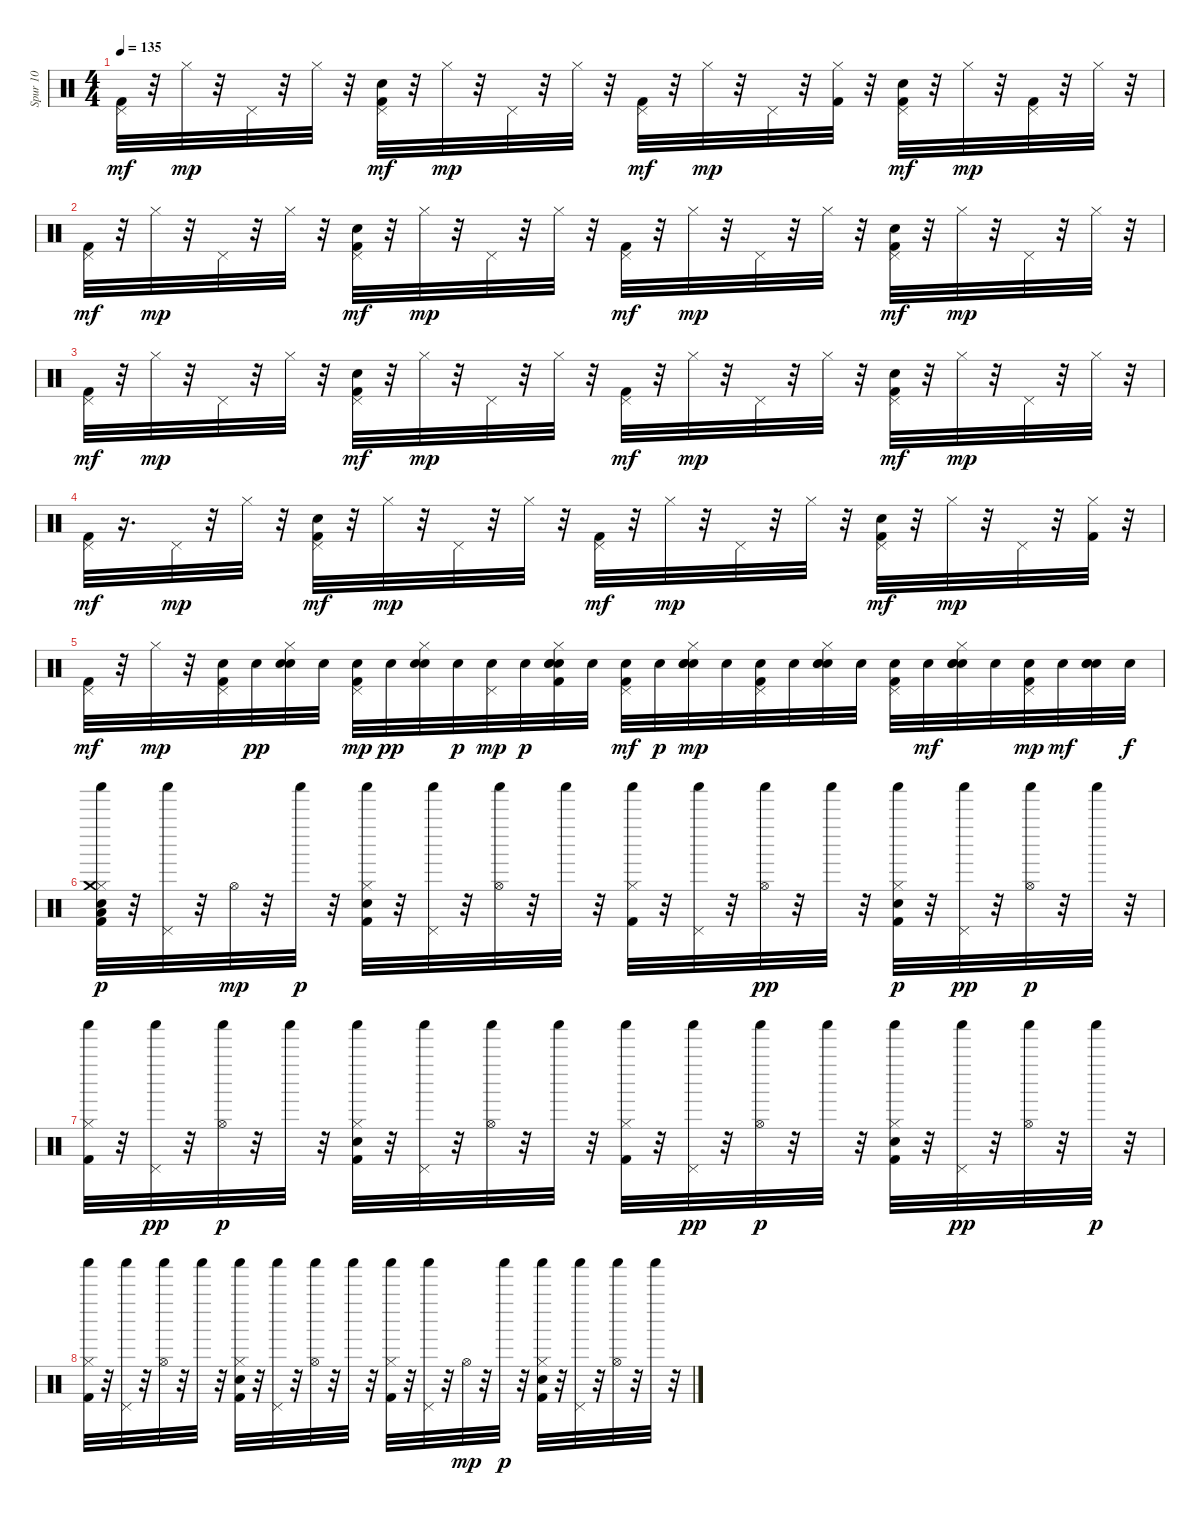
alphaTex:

\track ("Spur 10" "Spur 10") {instrument percussion}
\staff {score}
\articulation defaults
\ts (4 4)
\tempo 135
\clef neutral
\ks c
("Kick (hit) 2" "Pedal Hi-Hat (hit)").32{dy mf} r.32 "Hi-Hat (closed)".32{dy mp} r.32 "Pedal Hi-Hat (hit)".32 r.32 "Hi-Hat (closed)".32 r.32 ("Kick (hit) 2" "Snare (hit) 2" "Pedal Hi-Hat (hit)").32{dy mf} r.32 "Hi-Hat (closed)".32{dy mp} r.32 "Pedal Hi-Hat (hit)".32 r.32 "Hi-Hat (closed)".32 r.32 ("Kick (hit) 2" "Pedal Hi-Hat (hit)").32{dy mf} r.32 "Hi-Hat (closed)".32{dy mp} r.32 "Pedal Hi-Hat (hit)".32 r.32 ("Kick (hit) 2" "Hi-Hat (closed)").32 r.32 ("Kick (hit) 2" "Snare (hit) 2" "Pedal Hi-Hat (hit)").32{dy mf} r.32 "Hi-Hat (closed)".32{dy mp} r.32 ("Kick (hit) 2" "Pedal Hi-Hat (hit)").32 r.32 "Hi-Hat (closed)".32 r.32 |
("Kick (hit) 2" "Pedal Hi-Hat (hit)").32{dy mf} r.32 "Hi-Hat (closed)".32{dy mp} r.32 "Pedal Hi-Hat (hit)".32 r.32 "Hi-Hat (closed)".32 r.32 ("Kick (hit) 2" "Snare (hit) 2" "Pedal Hi-Hat (hit)").32{dy mf} r.32 "Hi-Hat (closed)".32{dy mp} r.32 "Pedal Hi-Hat (hit)".32 r.32 "Hi-Hat (closed)".32 r.32 ("Kick (hit) 2" "Pedal Hi-Hat (hit)").32{dy mf} r.32 "Hi-Hat (closed)".32{dy mp} r.32 "Pedal Hi-Hat (hit)".32 r.32 "Hi-Hat (closed)".32 r.32 ("Kick (hit) 2" "Snare (hit) 2" "Pedal Hi-Hat (hit)").32{dy mf} r.32 "Hi-Hat (closed)".32{dy mp} r.32 "Pedal Hi-Hat (hit)".32 r.32 "Hi-Hat (closed)".32 r.32 |
("Kick (hit) 2" "Pedal Hi-Hat (hit)").32{dy mf} r.32 "Hi-Hat (closed)".32{dy mp} r.32 "Pedal Hi-Hat (hit)".32 r.32 "Hi-Hat (closed)".32 r.32 ("Kick (hit) 2" "Snare (hit) 2" "Pedal Hi-Hat (hit)").32{dy mf} r.32 "Hi-Hat (closed)".32{dy mp} r.32 "Pedal Hi-Hat (hit)".32 r.32 "Hi-Hat (closed)".32 r.32 ("Kick (hit) 2" "Pedal Hi-Hat (hit)").32{dy mf} r.32 "Hi-Hat (closed)".32{dy mp} r.32 "Pedal Hi-Hat (hit)".32 r.32 "Hi-Hat (closed)".32 r.32 ("Kick (hit) 2" "Snare (hit) 2" "Pedal Hi-Hat (hit)").32{dy mf} r.32 "Hi-Hat (closed)".32{dy mp} r.32 "Pedal Hi-Hat (hit)".32 r.32 "Hi-Hat (closed)".32 r.32 |
("Kick (hit) 2" "Pedal Hi-Hat (hit)").32{dy mf} r.16{d} "Pedal Hi-Hat (hit)".32{dy mp} r.32 "Hi-Hat (closed)".32 r.32 ("Kick (hit) 2" "Snare (hit) 2" "Pedal Hi-Hat (hit)").32{dy mf} r.32 "Hi-Hat (closed)".32{dy mp} r.32 "Pedal Hi-Hat (hit)".32 r.32 "Hi-Hat (closed)".32 r.32 ("Kick (hit) 2" "Pedal Hi-Hat (hit)").32{dy mf} r.32 "Hi-Hat (closed)".32{dy mp} r.32 "Pedal Hi-Hat (hit)".32 r.32 "Hi-Hat (closed)".32 r.32 ("Kick (hit) 2" "Snare (hit) 2" "Pedal Hi-Hat (hit)").32{dy mf} r.32 "Hi-Hat (closed)".32{dy mp} r.32 "Pedal Hi-Hat (hit)".32 r.32 ("Kick (hit) 2" "Hi-Hat (closed)").32 r.32 |
("Kick (hit) 2" "Pedal Hi-Hat (hit)").32{dy mf} r.32 "Hi-Hat (closed)".32{dy mp} r.32 ("Kick (hit) 2" "Snare (hit) 2" "Pedal Hi-Hat (hit)").32 "Snare (hit) 2".32{dy pp} ("Snare (hit) 2" "Hi-Hat (closed)" "Snare (hit) 2").32 "Snare (hit) 2".32 ("Kick (hit) 2" "Snare (hit) 2" "Pedal Hi-Hat (hit)").32{dy mp} "Snare (hit) 2".32{dy pp} ("Snare (hit) 2" "Hi-Hat (closed)" "Snare (hit) 2").32 "Snare (hit) 2".32{dy p} ("Snare (hit) 2" "Pedal Hi-Hat (hit)").32{dy mp} "Snare (hit) 2".32{dy p} ("Snare (hit) 2" "Kick (hit) 2" "Snare (hit) 2" "Hi-Hat (closed)" "Snare (hit) 2").32 "Snare (hit) 2".32 ("Kick (hit) 2" "Snare (hit) 2" "Pedal Hi-Hat (hit)").32{dy mf} "Snare (hit) 2".32{dy p} ("Snare (hit) 2" "Snare (hit) 2" "Hi-Hat (closed)" "Snare (hit) 2").32{dy mp} "Snare (hit) 2".32 ("Kick (hit) 2" "Snare (hit) 2" "Pedal Hi-Hat (hit)").32 "Snare (hit) 2".32 ("Snare (hit) 2" "Snare (hit) 2" "Hi-Hat (closed)" "Snare (hit) 2").32 "Snare (hit) 2".32 ("Kick (hit) 2" "Snare (hit) 2" "Pedal Hi-Hat (hit)").32 "Snare (hit) 2".32{dy mf} ("Snare (hit) 2" "Snare (hit) 2" "Hi-Hat (closed)" "Snare (hit) 2").32 "Snare (hit) 2".32 ("Kick (hit) 2" "Snare (hit) 2" "Pedal Hi-Hat (hit)").32{dy mp} "Snare (hit) 2".32{dy mf} ("Snare (hit) 2" "Snare (hit) 2" "Snare (hit) 2").32 "Snare (hit) 2".32{dy f} |
("Kick (hit) 2" "Snare (hit) 2" "Hi-Hat (closed)" "Low Tom (hit)" "Crash medium (hit)" "Shaker (hit)").32{dy p} r.32 ("Pedal Hi-Hat (hit)" "Shaker (hit)").32 r.32 "Hi-Hat (open)".32{dy mp} r.32 "Shaker (hit)".32{dy p} r.32 ("Kick (hit) 2" "Snare (hit) 2" "Hi-Hat (closed)" "Shaker (hit)").32 r.32 ("Pedal Hi-Hat (hit)" "Shaker (hit)").32 r.32 ("Hi-Hat (open)" "Shaker (hit)").32 r.32 "Shaker (hit)".32 r.32 ("Kick (hit) 2" "Hi-Hat (closed)" "Shaker (hit)").32 r.32 ("Pedal Hi-Hat (hit)" "Shaker (hit)").32 r.32 ("Hi-Hat (open)" "Shaker (hit)").32{dy pp} r.32 "Shaker (hit)".32 r.32 ("Kick (hit) 2" "Snare (hit) 2" "Hi-Hat (closed)" "Shaker (hit)").32{dy p} r.32 ("Pedal Hi-Hat (hit)" "Shaker (hit)").32{dy pp} r.32 ("Hi-Hat (open)" "Shaker (hit)").32{dy p} r.32 "Shaker (hit)".32 r.32 |
("Kick (hit) 2" "Hi-Hat (closed)" "Shaker (hit)").32 r.32 ("Pedal Hi-Hat (hit)" "Shaker (hit)").32{dy pp} r.32 ("Hi-Hat (open)" "Shaker (hit)").32{dy p} r.32 "Shaker (hit)".32 r.32 ("Kick (hit) 2" "Snare (hit) 2" "Hi-Hat (closed)" "Shaker (hit)").32 r.32 ("Pedal Hi-Hat (hit)" "Shaker (hit)").32 r.32 ("Hi-Hat (open)" "Shaker (hit)").32 r.32 "Shaker (hit)".32 r.32 ("Kick (hit) 2" "Hi-Hat (closed)" "Shaker (hit)").32 r.32 ("Pedal Hi-Hat (hit)" "Shaker (hit)").32{dy pp} r.32 ("Hi-Hat (open)" "Shaker (hit)").32{dy p} r.32 "Shaker (hit)".32 r.32 ("Kick (hit) 2" "Snare (hit) 2" "Hi-Hat (closed)" "Shaker (hit)").32 r.32 ("Pedal Hi-Hat (hit)" "Shaker (hit)").32{dy pp} r.32 ("Hi-Hat (open)" "Shaker (hit)").32 r.32 "Shaker (hit)".32{dy p} r.32 |
("Kick (hit) 2" "Hi-Hat (closed)" "Shaker (hit)").32 r.32 ("Pedal Hi-Hat (hit)" "Shaker (hit)").32 r.32 ("Hi-Hat (open)" "Shaker (hit)").32 r.32 "Shaker (hit)".32 r.32 ("Kick (hit) 2" "Snare (hit) 2" "Hi-Hat (closed)" "Shaker (hit)").32 r.32 ("Pedal Hi-Hat (hit)" "Shaker (hit)").32 r.32 ("Hi-Hat (open)" "Shaker (hit)").32 r.32 "Shaker (hit)".32 r.32 ("Kick (hit) 2" "Hi-Hat (closed)" "Shaker (hit)").32 r.32 ("Pedal Hi-Hat (hit)" "Shaker (hit)").32 r.32 "Hi-Hat (open)".32{dy mp} r.32 "Shaker (hit)".32{dy p} r.32 ("Kick (hit) 2" "Snare (hit) 2" "Hi-Hat (closed)" "Shaker (hit)").32 r.32 ("Pedal Hi-Hat (hit)" "Shaker (hit)").32 r.32 ("Hi-Hat (open)" "Shaker (hit)").32 r.32 "Shaker (hit)".32 r.32
